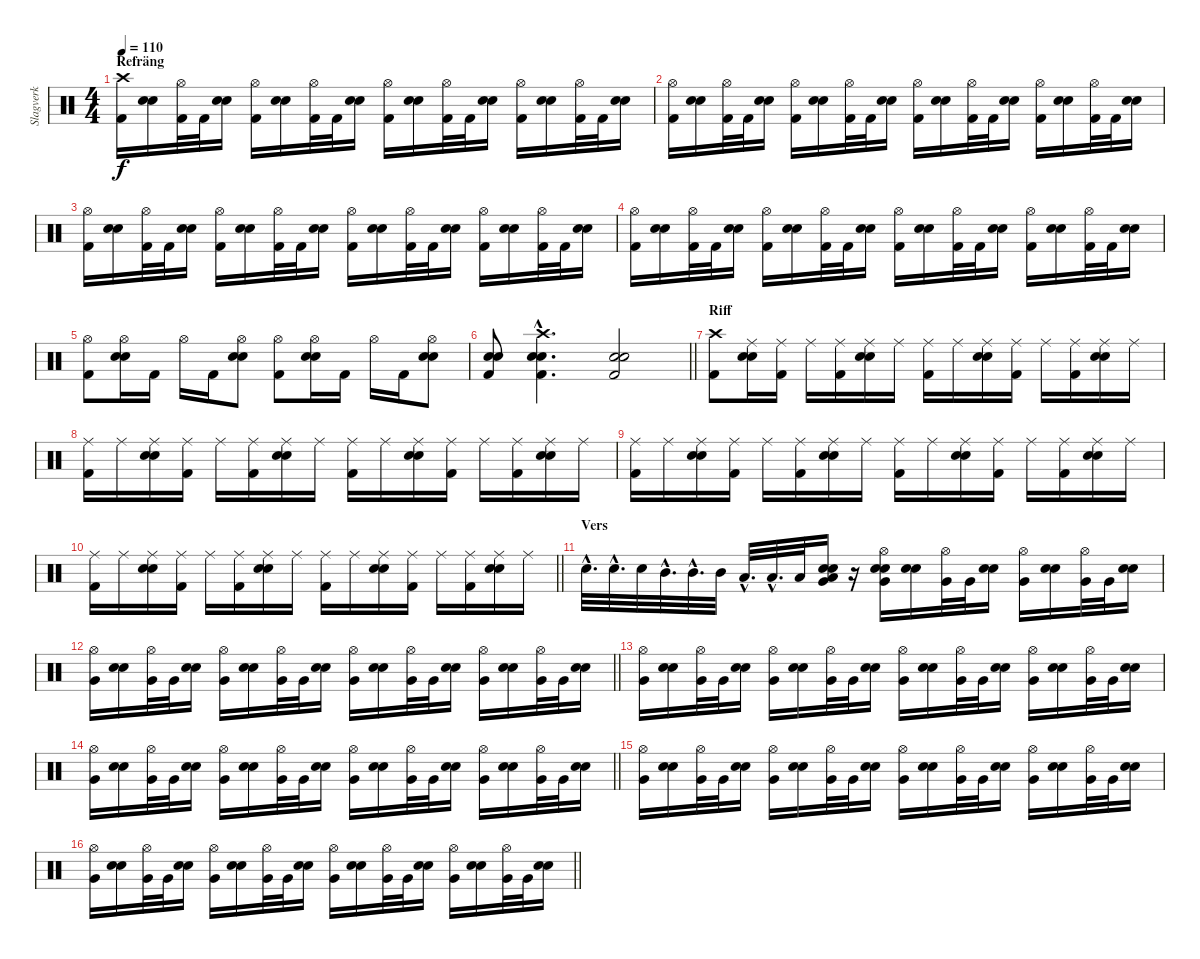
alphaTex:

\track ("Slagverk" "Slagverk") {instrument percussion}
\staff {score}
\articulation defaults
\ts (4 4)
\section ("" "Refräng")
\tempo 110
\clef neutral
\ks c
("Crash high (hit)" "Kick (hit) 2").16{dy f} ("Electric Snare (hit)" "Electric Snare (hit)").16 ("Hi-Hat (open)" "Kick (hit) 2").32 "Kick (hit) 2".32 ("Electric Snare (hit)" "Electric Snare (hit)").16 ("Hi-Hat (open)" "Kick (hit) 2").16 ("Electric Snare (hit)" "Electric Snare (hit)").16 ("Hi-Hat (open)" "Kick (hit) 2").32 "Kick (hit) 2".32 ("Electric Snare (hit)" "Electric Snare (hit)").16 ("Hi-Hat (open)" "Kick (hit) 2").16 ("Electric Snare (hit)" "Electric Snare (hit)").16 ("Hi-Hat (open)" "Kick (hit) 2").32 "Kick (hit) 2".32 ("Electric Snare (hit)" "Electric Snare (hit)").16 ("Hi-Hat (open)" "Kick (hit) 2").16 ("Electric Snare (hit)" "Electric Snare (hit)").16 ("Hi-Hat (open)" "Kick (hit) 2").32 "Kick (hit) 2".32 ("Electric Snare (hit)" "Electric Snare (hit)").16 |
("Hi-Hat (open)" "Kick (hit) 2").16 ("Electric Snare (hit)" "Electric Snare (hit)").16 ("Hi-Hat (open)" "Kick (hit) 2").32 "Kick (hit) 2".32 ("Electric Snare (hit)" "Electric Snare (hit)").16 ("Hi-Hat (open)" "Kick (hit) 2").16 ("Electric Snare (hit)" "Electric Snare (hit)").16 ("Hi-Hat (open)" "Kick (hit) 2").32 "Kick (hit) 2".32 ("Electric Snare (hit)" "Electric Snare (hit)").16 ("Hi-Hat (open)" "Kick (hit) 2").16 ("Electric Snare (hit)" "Electric Snare (hit)").16 ("Hi-Hat (open)" "Kick (hit) 2").32 "Kick (hit) 2".32 ("Electric Snare (hit)" "Electric Snare (hit)").16 ("Hi-Hat (open)" "Kick (hit) 2").16 ("Electric Snare (hit)" "Electric Snare (hit)").16 ("Hi-Hat (open)" "Kick (hit) 2").32 "Kick (hit) 2".32 ("Electric Snare (hit)" "Electric Snare (hit)").16 |
("Hi-Hat (open)" "Kick (hit) 2").16 ("Electric Snare (hit)" "Electric Snare (hit)").16 ("Hi-Hat (open)" "Kick (hit) 2").32 "Kick (hit) 2".32 ("Electric Snare (hit)" "Electric Snare (hit)").16 ("Hi-Hat (open)" "Kick (hit) 2").16 ("Electric Snare (hit)" "Electric Snare (hit)").16 ("Hi-Hat (open)" "Kick (hit) 2").32 "Kick (hit) 2".32 ("Electric Snare (hit)" "Electric Snare (hit)").16 ("Hi-Hat (open)" "Kick (hit) 2").16 ("Electric Snare (hit)" "Electric Snare (hit)").16 ("Hi-Hat (open)" "Kick (hit) 2").32 "Kick (hit) 2".32 ("Electric Snare (hit)" "Electric Snare (hit)").16 ("Hi-Hat (open)" "Kick (hit) 2").16 ("Electric Snare (hit)" "Electric Snare (hit)").16 ("Hi-Hat (open)" "Kick (hit) 2").32 "Kick (hit) 2".32 ("Electric Snare (hit)" "Electric Snare (hit)").16 |
("Hi-Hat (open)" "Kick (hit) 2").16 ("Electric Snare (hit)" "Electric Snare (hit)").16 ("Hi-Hat (open)" "Kick (hit) 2").32 "Kick (hit) 2".32 ("Electric Snare (hit)" "Electric Snare (hit)").16 ("Hi-Hat (open)" "Kick (hit) 2").16 ("Electric Snare (hit)" "Electric Snare (hit)").16 ("Hi-Hat (open)" "Kick (hit) 2").32 "Kick (hit) 2".32 ("Electric Snare (hit)" "Electric Snare (hit)").16 ("Hi-Hat (open)" "Kick (hit) 2").16 ("Electric Snare (hit)" "Electric Snare (hit)").16 ("Hi-Hat (open)" "Kick (hit) 2").32 "Kick (hit) 2".32 ("Electric Snare (hit)" "Electric Snare (hit)").16 ("Hi-Hat (open)" "Kick (hit) 2").16 ("Electric Snare (hit)" "Electric Snare (hit)").16 ("Hi-Hat (open)" "Kick (hit) 2").32 "Kick (hit) 2".32 ("Electric Snare (hit)" "Electric Snare (hit)").16 |
("Hi-Hat (open)" "Kick (hit) 2").8 ("Hi-Hat (open)" "Electric Snare (hit)" "Electric Snare (hit)").16 "Kick (hit) 2".16 "Hi-Hat (open)".16 "Kick (hit) 2".16 ("Hi-Hat (open)" "Electric Snare (hit)" "Electric Snare (hit)").8 ("Hi-Hat (open)" "Kick (hit) 2").8 ("Hi-Hat (open)" "Electric Snare (hit)" "Electric Snare (hit)").16 "Kick (hit) 2".16 "Hi-Hat (open)".16 "Kick (hit) 2".16 ("Hi-Hat (open)" "Electric Snare (hit)" "Electric Snare (hit)").8 |
\barLineRight lightlight
("Electric Snare (hit)" "Electric Snare (hit)" "Kick (hit) 2").8 ("Crash high (hit)"{hac} "Electric Snare (hit)"{hac} "Electric Snare (hit)"{hac} "Kick (hit) 2"{hac}).4{d} ("Electric Snare (hit)" "Electric Snare (hit)" "Kick (hit) 2").2 |
\section ("" "Riff")
("Crash high (hit)" "Kick (hit) 2").8 ("Ride (middle)" "Electric Snare (hit)" "Electric Snare (hit)").16 ("Ride (middle)" "Kick (hit) 2").16 "Ride (middle)".16 ("Ride (middle)" "Kick (hit) 2").16 ("Ride (middle)" "Electric Snare (hit)" "Electric Snare (hit)").16 "Ride (middle)".16 ("Ride (middle)" "Kick (hit) 2").16 "Ride (middle)".16 ("Ride (middle)" "Electric Snare (hit)" "Electric Snare (hit)").16 ("Ride (middle)" "Kick (hit) 2").16 "Ride (middle)".16 ("Ride (middle)" "Kick (hit) 2").16 ("Ride (middle)" "Electric Snare (hit)" "Electric Snare (hit)").16 "Ride (middle)".16 |
("Ride (middle)" "Kick (hit) 2").16 "Ride (middle)".16 ("Ride (middle)" "Electric Snare (hit)" "Electric Snare (hit)").16 ("Ride (middle)" "Kick (hit) 2").16 "Ride (middle)".16 ("Ride (middle)" "Kick (hit) 2").16 ("Ride (middle)" "Electric Snare (hit)" "Electric Snare (hit)").16 "Ride (middle)".16 ("Ride (middle)" "Kick (hit) 2").16 "Ride (middle)".16 ("Ride (middle)" "Electric Snare (hit)" "Electric Snare (hit)").16 ("Ride (middle)" "Kick (hit) 2").16 "Ride (middle)".16 ("Ride (middle)" "Kick (hit) 2").16 ("Ride (middle)" "Electric Snare (hit)" "Electric Snare (hit)").16 "Ride (middle)".16 |
("Ride (middle)" "Kick (hit) 2").16 "Ride (middle)".16 ("Ride (middle)" "Electric Snare (hit)" "Electric Snare (hit)").16 ("Ride (middle)" "Kick (hit) 2").16 "Ride (middle)".16 ("Ride (middle)" "Kick (hit) 2").16 ("Ride (middle)" "Electric Snare (hit)" "Electric Snare (hit)").16 "Ride (middle)".16 ("Ride (middle)" "Kick (hit) 2").16 "Ride (middle)".16 ("Ride (middle)" "Electric Snare (hit)" "Electric Snare (hit)").16 ("Ride (middle)" "Kick (hit) 2").16 "Ride (middle)".16 ("Ride (middle)" "Kick (hit) 2").16 ("Ride (middle)" "Electric Snare (hit)" "Electric Snare (hit)").16 "Ride (middle)".16 |
\barLineRight lightlight
("Ride (middle)" "Kick (hit) 2").16 "Ride (middle)".16 ("Ride (middle)" "Electric Snare (hit)" "Electric Snare (hit)").16 ("Ride (middle)" "Kick (hit) 2").16 "Ride (middle)".16 ("Ride (middle)" "Kick (hit) 2").16 ("Ride (middle)" "Electric Snare (hit)" "Electric Snare (hit)").16 "Ride (middle)".16 ("Ride (middle)" "Kick (hit) 2").16 "Ride (middle)".16 ("Ride (middle)" "Electric Snare (hit)" "Electric Snare (hit)").16 ("Ride (middle)" "Kick (hit) 2").16 "Ride (middle)".16 ("Ride (middle)" "Kick (hit) 2").16 ("Ride (middle)" "Electric Snare (hit)" "Electric Snare (hit)").16 "Ride (middle)".16 |
\section ("" "Vers")
"Electric Snare (hit)"{hac}.32{d} "Electric Snare (hit)"{hac}.32{d} "Electric Snare (hit)".32 "Mid Tom (hit)"{hac}.32{d} "Mid Tom (hit)"{hac}.32{d} "Mid Tom (hit)".32 "Low Floor Tom (hit)"{hac}.32{d} "Low Floor Tom (hit)"{hac}.32{d} "Low Floor Tom (hit)".32 ("Very Low Tom (hit)" "Electric Snare (hit)" "Electric Snare (hit)" "Low Floor Tom (hit)").16 r.16 ("Very Low Tom (hit)" "Electric Snare (hit)" "Electric Snare (hit)" "Hi-Hat (open)").16 ("Electric Snare (hit)" "Electric Snare (hit)").16 ("Very Low Tom (hit)" "Hi-Hat (open)").32 "Very Low Tom (hit)".32 ("Electric Snare (hit)" "Electric Snare (hit)").16 ("Very Low Tom (hit)" "Hi-Hat (open)").16 ("Electric Snare (hit)" "Electric Snare (hit)").16 ("Very Low Tom (hit)" "Hi-Hat (open)").32 "Very Low Tom (hit)".32 ("Electric Snare (hit)" "Electric Snare (hit)").16 |
\barLineRight lightlight
("Very Low Tom (hit)" "Hi-Hat (open)").16 ("Electric Snare (hit)" "Electric Snare (hit)").16 ("Very Low Tom (hit)" "Hi-Hat (open)").32 "Very Low Tom (hit)".32 ("Electric Snare (hit)" "Electric Snare (hit)").16 ("Very Low Tom (hit)" "Hi-Hat (open)").16 ("Electric Snare (hit)" "Electric Snare (hit)").16 ("Very Low Tom (hit)" "Hi-Hat (open)").32 "Very Low Tom (hit)".32 ("Electric Snare (hit)" "Electric Snare (hit)").16 ("Very Low Tom (hit)" "Hi-Hat (open)").16 ("Electric Snare (hit)" "Electric Snare (hit)").16 ("Very Low Tom (hit)" "Hi-Hat (open)").32 "Very Low Tom (hit)".32 ("Electric Snare (hit)" "Electric Snare (hit)").16 ("Very Low Tom (hit)" "Hi-Hat (open)").16 ("Electric Snare (hit)" "Electric Snare (hit)").16 ("Very Low Tom (hit)" "Hi-Hat (open)").32 "Very Low Tom (hit)".32 ("Electric Snare (hit)" "Electric Snare (hit)").16 |
("Very Low Tom (hit)" "Hi-Hat (open)").16 ("Electric Snare (hit)" "Electric Snare (hit)").16 ("Very Low Tom (hit)" "Hi-Hat (open)").32 "Very Low Tom (hit)".32 ("Electric Snare (hit)" "Electric Snare (hit)").16 ("Very Low Tom (hit)" "Hi-Hat (open)").16 ("Electric Snare (hit)" "Electric Snare (hit)").16 ("Very Low Tom (hit)" "Hi-Hat (open)").32 "Very Low Tom (hit)".32 ("Electric Snare (hit)" "Electric Snare (hit)").16 ("Very Low Tom (hit)" "Hi-Hat (open)").16 ("Electric Snare (hit)" "Electric Snare (hit)").16 ("Very Low Tom (hit)" "Hi-Hat (open)").32 "Very Low Tom (hit)".32 ("Electric Snare (hit)" "Electric Snare (hit)").16 ("Very Low Tom (hit)" "Hi-Hat (open)").16 ("Electric Snare (hit)" "Electric Snare (hit)").16 ("Very Low Tom (hit)" "Hi-Hat (open)").32 "Very Low Tom (hit)".32 ("Electric Snare (hit)" "Electric Snare (hit)").16 |
\barLineRight lightlight
("Very Low Tom (hit)" "Hi-Hat (open)").16 ("Electric Snare (hit)" "Electric Snare (hit)").16 ("Very Low Tom (hit)" "Hi-Hat (open)").32 "Very Low Tom (hit)".32 ("Electric Snare (hit)" "Electric Snare (hit)").16 ("Very Low Tom (hit)" "Hi-Hat (open)").16 ("Electric Snare (hit)" "Electric Snare (hit)").16 ("Very Low Tom (hit)" "Hi-Hat (open)").32 "Very Low Tom (hit)".32 ("Electric Snare (hit)" "Electric Snare (hit)").16 ("Very Low Tom (hit)" "Hi-Hat (open)").16 ("Electric Snare (hit)" "Electric Snare (hit)").16 ("Very Low Tom (hit)" "Hi-Hat (open)").32 "Very Low Tom (hit)".32 ("Electric Snare (hit)" "Electric Snare (hit)").16 ("Very Low Tom (hit)" "Hi-Hat (open)").16 ("Electric Snare (hit)" "Electric Snare (hit)").16 ("Very Low Tom (hit)" "Hi-Hat (open)").32 "Very Low Tom (hit)".32 ("Electric Snare (hit)" "Electric Snare (hit)").16 |
("Very Low Tom (hit)" "Hi-Hat (open)").16 ("Electric Snare (hit)" "Electric Snare (hit)").16 ("Very Low Tom (hit)" "Hi-Hat (open)").32 "Very Low Tom (hit)".32 ("Electric Snare (hit)" "Electric Snare (hit)").16 ("Very Low Tom (hit)" "Hi-Hat (open)").16 ("Electric Snare (hit)" "Electric Snare (hit)").16 ("Very Low Tom (hit)" "Hi-Hat (open)").32 "Very Low Tom (hit)".32 ("Electric Snare (hit)" "Electric Snare (hit)").16 ("Very Low Tom (hit)" "Hi-Hat (open)").16 ("Electric Snare (hit)" "Electric Snare (hit)").16 ("Very Low Tom (hit)" "Hi-Hat (open)").32 "Very Low Tom (hit)".32 ("Electric Snare (hit)" "Electric Snare (hit)").16 ("Very Low Tom (hit)" "Hi-Hat (open)").16 ("Electric Snare (hit)" "Electric Snare (hit)").16 ("Very Low Tom (hit)" "Hi-Hat (open)").32 "Very Low Tom (hit)".32 ("Electric Snare (hit)" "Electric Snare (hit)").16 |
\barLineRight lightlight
("Very Low Tom (hit)" "Hi-Hat (open)").16 ("Electric Snare (hit)" "Electric Snare (hit)").16 ("Very Low Tom (hit)" "Hi-Hat (open)").32 "Very Low Tom (hit)".32 ("Electric Snare (hit)" "Electric Snare (hit)").16 ("Very Low Tom (hit)" "Hi-Hat (open)").16 ("Electric Snare (hit)" "Electric Snare (hit)").16 ("Very Low Tom (hit)" "Hi-Hat (open)").32 "Very Low Tom (hit)".32 ("Electric Snare (hit)" "Electric Snare (hit)").16 ("Very Low Tom (hit)" "Hi-Hat (open)").16 ("Electric Snare (hit)" "Electric Snare (hit)").16 ("Very Low Tom (hit)" "Hi-Hat (open)").32 "Very Low Tom (hit)".32 ("Electric Snare (hit)" "Electric Snare (hit)").16 ("Very Low Tom (hit)" "Hi-Hat (open)").16 ("Electric Snare (hit)" "Electric Snare (hit)").16 ("Very Low Tom (hit)" "Hi-Hat (open)").32 "Very Low Tom (hit)".32 ("Electric Snare (hit)" "Electric Snare (hit)").16
